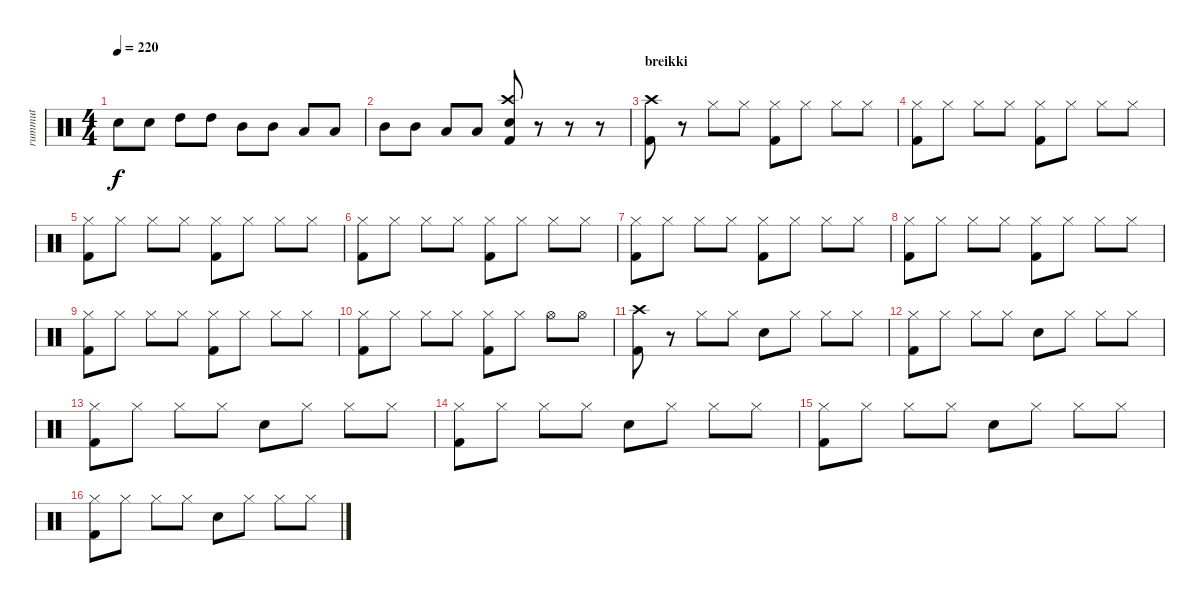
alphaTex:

\track ("rummut" "rummut") {instrument percussion}
\staff {score}
\articulation defaults
\ts (4 4)
\tempo 220
\clef neutral
\ks c "Electric Snare (hit)".8{dy f} "Electric Snare (hit)".8 "High Tom (hit)".8 "High Tom (hit)".8 "Mid Tom (hit)".8 "Mid Tom (hit)".8 "Low Tom (hit)".8 "Low Tom (hit)".8
|
"Mid Tom (hit)".8 "Mid Tom (hit)".8 "Low Tom (hit)".8 "Low Tom (hit)".8 ("Crash high (hit)" "Electric Snare (hit)" "Kick (hit) 2").8 r.8 r.8 r.8 |
\section ("" "breikki")
("Crash high (hit)" "Kick (hit) 2").8 r.8 "Hi-Hat (closed)".8 "Hi-Hat (closed)".8 ("Hi-Hat (closed)" "Kick (hit) 2").8 "Hi-Hat (closed)".8 "Hi-Hat (closed)".8 "Hi-Hat (closed)".8 |
("Hi-Hat (closed)" "Kick (hit) 2").8 "Hi-Hat (closed)".8 "Hi-Hat (closed)".8 "Hi-Hat (closed)".8 ("Hi-Hat (closed)" "Kick (hit) 2").8 "Hi-Hat (closed)".8 "Hi-Hat (closed)".8 "Hi-Hat (closed)".8 |
("Hi-Hat (closed)" "Kick (hit) 2").8 "Hi-Hat (closed)".8 "Hi-Hat (closed)".8 "Hi-Hat (closed)".8 ("Hi-Hat (closed)" "Kick (hit) 2").8 "Hi-Hat (closed)".8 "Hi-Hat (closed)".8 "Hi-Hat (closed)".8 |
("Hi-Hat (closed)" "Kick (hit) 2").8 "Hi-Hat (closed)".8 "Hi-Hat (closed)".8 "Hi-Hat (closed)".8 ("Hi-Hat (closed)" "Kick (hit) 2").8 "Hi-Hat (closed)".8 "Hi-Hat (closed)".8 "Hi-Hat (closed)".8 |
("Hi-Hat (closed)" "Kick (hit) 2").8 "Hi-Hat (closed)".8 "Hi-Hat (closed)".8 "Hi-Hat (closed)".8 ("Hi-Hat (closed)" "Kick (hit) 2").8 "Hi-Hat (closed)".8 "Hi-Hat (closed)".8 "Hi-Hat (closed)".8 |
("Hi-Hat (closed)" "Kick (hit) 2").8 "Hi-Hat (closed)".8 "Hi-Hat (closed)".8 "Hi-Hat (closed)".8 ("Hi-Hat (closed)" "Kick (hit) 2").8 "Hi-Hat (closed)".8 "Hi-Hat (closed)".8 "Hi-Hat (closed)".8 |
("Hi-Hat (closed)" "Kick (hit) 2").8 "Hi-Hat (closed)".8 "Hi-Hat (closed)".8 "Hi-Hat (closed)".8 ("Hi-Hat (closed)" "Kick (hit) 2").8 "Hi-Hat (closed)".8 "Hi-Hat (closed)".8 "Hi-Hat (closed)".8 |
("Hi-Hat (closed)" "Kick (hit) 2").8 "Hi-Hat (closed)".8 "Hi-Hat (closed)".8 "Hi-Hat (closed)".8 ("Hi-Hat (closed)" "Kick (hit) 2").8 "Hi-Hat (closed)".8 "Hi-Hat (open)".8 "Hi-Hat (open)".8 |
("Crash high (hit)" "Kick (hit) 2").8 r.8 "Hi-Hat (closed)".8 "Hi-Hat (closed)".8 "Electric Snare (hit)".8 "Hi-Hat (closed)".8 "Hi-Hat (closed)".8 "Hi-Hat (closed)".8 |
("Hi-Hat (closed)" "Kick (hit) 2").8 "Hi-Hat (closed)".8 "Hi-Hat (closed)".8 "Hi-Hat (closed)".8 "Electric Snare (hit)".8 "Hi-Hat (closed)".8 "Hi-Hat (closed)".8 "Hi-Hat (closed)".8 |
("Hi-Hat (closed)" "Kick (hit) 2").8 "Hi-Hat (closed)".8 "Hi-Hat (closed)".8 "Hi-Hat (closed)".8 "Electric Snare (hit)".8 "Hi-Hat (closed)".8 "Hi-Hat (closed)".8 "Hi-Hat (closed)".8 |
("Hi-Hat (closed)" "Kick (hit) 2").8 "Hi-Hat (closed)".8 "Hi-Hat (closed)".8 "Hi-Hat (closed)".8 "Electric Snare (hit)".8 "Hi-Hat (closed)".8 "Hi-Hat (closed)".8 "Hi-Hat (closed)".8 |
("Hi-Hat (closed)" "Kick (hit) 2").8 "Hi-Hat (closed)".8 "Hi-Hat (closed)".8 "Hi-Hat (closed)".8 "Electric Snare (hit)".8 "Hi-Hat (closed)".8 "Hi-Hat (closed)".8 "Hi-Hat (closed)".8 |
("Hi-Hat (closed)" "Kick (hit) 2").8 "Hi-Hat (closed)".8 "Hi-Hat (closed)".8 "Hi-Hat (closed)".8 "Electric Snare (hit)".8 "Hi-Hat (closed)".8 "Hi-Hat (closed)".8 "Hi-Hat (closed)".8
